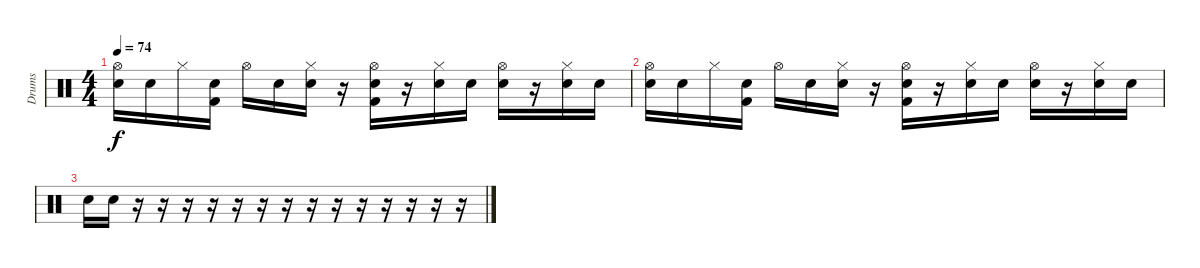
\track ("Drums" "Drums") {instrument percussion}
\staff {score}
\articulation defaults
\ts (4 4)
\tempo 74
\clef neutral
\ks c
("Hi-Hat (open)" "Snare (hit) 2").16{dy f} "Snare (hit) 2".16 "Hi-Hat (closed)".16 ("Electric Snare (hit)" "Kick (hit) 2").16 "Hi-Hat (open)".16 "Snare (hit) 2".16 ("Hi-Hat (closed)" "Snare (hit) 2").16 r.16 ("Hi-Hat (open)" "Electric Snare (hit)" "Kick (hit) 2").16 r.16 ("Hi-Hat (closed)" "Snare (hit) 2").16 "Snare (hit) 2".16 ("Hi-Hat (open)" "Snare (hit) 2").16 r.16 ("Hi-Hat (closed)" "Snare (hit) 2").16 "Snare (hit) 2".16 |
("Hi-Hat (open)" "Snare (hit) 2").16 "Snare (hit) 2".16 "Hi-Hat (closed)".16 ("Electric Snare (hit)" "Kick (hit) 2").16 "Hi-Hat (open)".16 "Snare (hit) 2".16 ("Hi-Hat (closed)" "Snare (hit) 2").16 r.16 ("Hi-Hat (open)" "Electric Snare (hit)" "Kick (hit) 2").16 r.16 ("Hi-Hat (closed)" "Snare (hit) 2").16 "Snare (hit) 2".16 ("Hi-Hat (open)" "Snare (hit) 2").16 r.16 ("Hi-Hat (closed)" "Snare (hit) 2").16 "Snare (hit) 2".16 |
"Snare (hit) 2".16 "Snare (hit) 2".16 r.16 r.16 r.16 r.16 r.16 r.16 r.16 r.16 r.16 r.16 r.16 r.16 r.16 r.16
